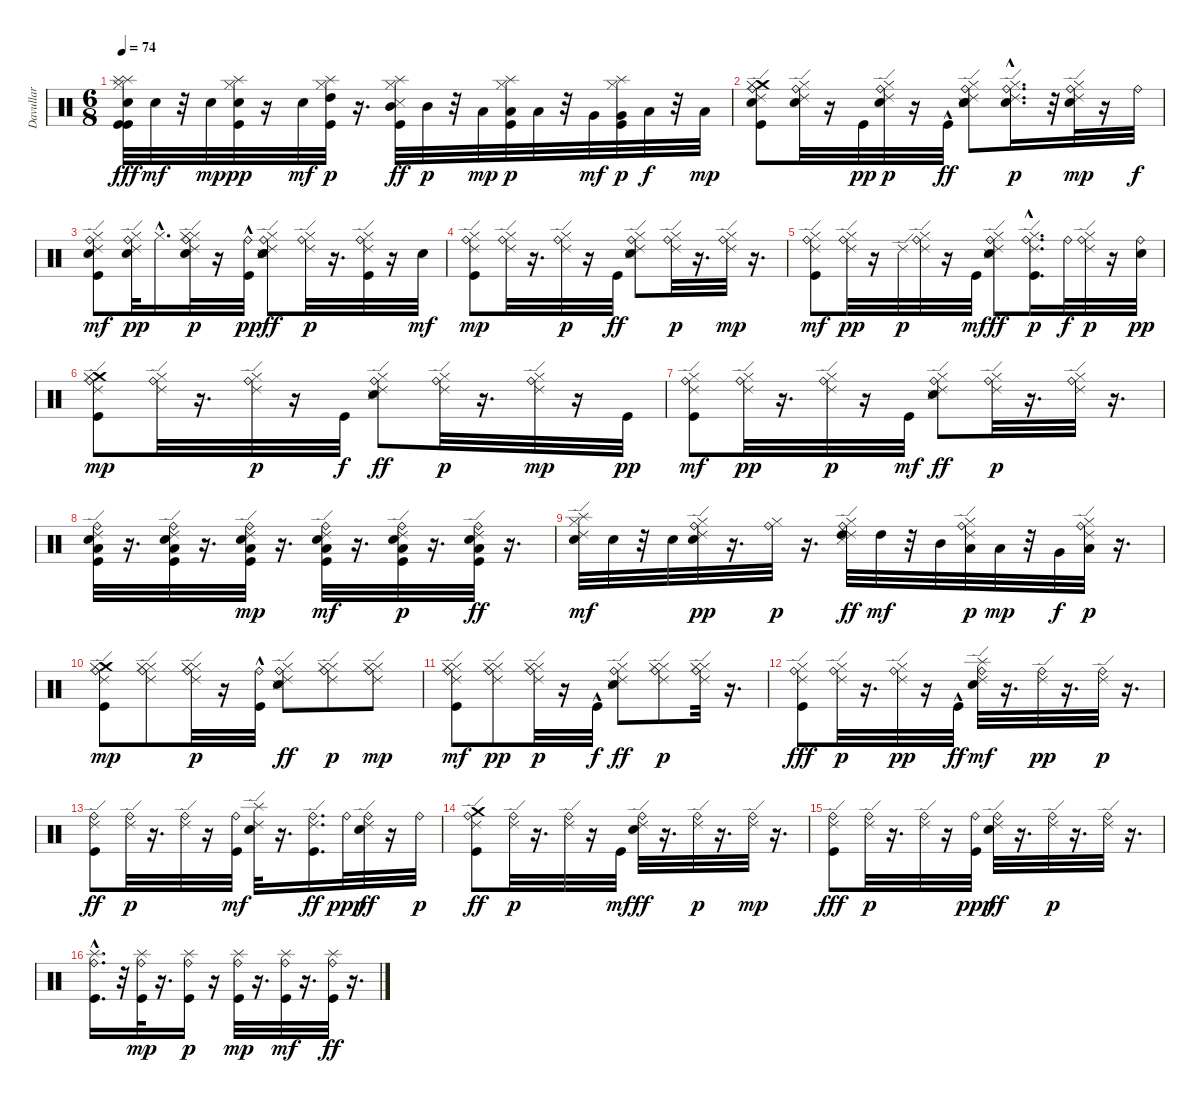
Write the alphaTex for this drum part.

\track ("Davullar" "Davullar") {instrument percussion}
\staff {score}
\articulation defaults
\ts (6 8)
\tempo 74
\clef neutral
\ks c
("Splash (hit)" "Electric Snare (hit)" "Kick (hit)" "Splash (hit)" "Hi-Hat (closed)" "Kick (hit)").32{dy fff} "Electric Snare (hit)".32{dy mf} r.32 "Electric Snare (hit)".32{dy mp} ("Electric Snare (hit)" "Kick (hit)" "Splash (hit)" "Hi-Hat (closed)").32{dy pp} r.16 "Electric Snare (hit)".32{dy mf} ("High Tom (hit)" "Kick (hit)" "Splash (hit)" "Hi-Hat (closed)").32{dy p} r.16{d} ("Mid Tom (hit)" "Kick (hit)" "Splash (hit)" "Hi-Hat (closed)" "Snare (side stick) 3").32{dy ff} "Mid Tom (hit)".32{dy p} r.32 "Low Tom (hit)".32{dy mp} ("Low Tom (hit)" "Kick (hit)" "Splash (hit)" "Hi-Hat (closed)").32{dy p} "Low Tom (hit)".32 r.32 "Very Low Tom (hit)".32{dy mf} ("Very Low Tom (hit)" "Kick (hit)" "Splash (hit)" "Hi-Hat (closed)").32{dy p} "Low Floor Tom (hit)".32{dy f} r.32 "Low Floor Tom (hit)".32{dy mp} |
("Crash medium (hit)" "Ride (edge) 2" "Snare (hit)" "Ride (bell)" "Kick (hit)" "Hi-Hat (closed)").8 ("Ride (edge) 2" "Snare (hit)" "Ride (bell)" "Hi-Hat (closed)").32 r.16 "Kick (hit)".32{dy pp} ("Ride (edge) 2" "Snare (hit)" "Ride (bell)" "Hi-Hat (closed)").32{dy p} r.16 "Kick (hit)"{hac}.32{dy ff} ("Ride (edge) 2" "Snare (hit)" "Ride (bell)" "Electric Snare (hit)" "Hi-Hat (closed)" "Snare (side stick) 3").8 ("Ride (edge) 2" "Snare (hit)" "Ride (bell)"{hac} "Hi-Hat (closed)").16{d dy p} r.32 ("Ride (edge) 2" "Snare (hit)" "Ride (bell)" "Hi-Hat (closed)").32{dy mp} r.16 "Ride (bell)".32{dy f} |
("Ride (edge) 2" "Snare (hit)" "Ride (bell)" "Kick (hit)" "Hi-Hat (closed)").8{dy mf} ("Ride (edge) 2" "Snare (hit)" "Ride (bell)" "Hi-Hat (closed)").32{dy pp} "Hi-Hat (closed)"{hac}.16{d} ("Ride (edge) 2" "Snare (hit)" "Ride (bell)" "Hi-Hat (closed)" "Hi-Hat (closed)").32{dy p} r.16 ("Ride (bell)" "Kick (hit)"{hac}).32{dy pp} ("Ride (edge) 2" "Snare (hit)" "Ride (bell)" "Electric Snare (hit)" "Hi-Hat (closed)" "Snare (side stick) 3").8{dy ff} ("Ride (edge) 2" "Ride (bell)" "Hi-Hat (closed)").32{dy p} r.16{d} ("Ride (edge) 2" "Ride (bell)" "Kick (hit)" "Hi-Hat (closed)").32 r.16 "Electric Snare (hit)".32{dy mf} |
("Ride (edge) 2" "Ride (bell)" "Kick (hit)" "Hi-Hat (closed)").8{dy mp} ("Ride (edge) 2" "Ride (bell)" "Hi-Hat (closed)").32 r.16{d} ("Ride (edge) 2" "Ride (bell)" "Hi-Hat (closed)").32{dy p} r.16 "Kick (hit)".32{dy ff} ("Ride (edge) 2" "Ride (bell)" "Electric Snare (hit)" "Hi-Hat (closed)" "Snare (side stick) 3").8 ("Ride (edge) 2" "Ride (bell)" "Hi-Hat (closed)").32{dy p} r.16{d} ("Ride (edge) 2" "Ride (bell)" "Hi-Hat (closed)").32{dy mp} r.16{d} |
("Ride (edge) 2" "Ride (bell)" "Kick (hit)" "Hi-Hat (closed)").8{dy mf} ("Ride (edge) 2" "Ride (bell)" "Hi-Hat (closed)").32{dy pp} r.16 "Ride (edge) 2".32{dy p} ("Ride (edge) 2" "Ride (bell)" "Hi-Hat (closed)").32 r.16 "Kick (hit)".32{dy mf} ("Ride (edge) 2" "Ride (bell)" "Electric Snare (hit)" "Hi-Hat (closed)" "Snare (side stick) 3").8{dy ff} ("Ride (edge) 2" "Ride (bell)" "Kick (hit)"{hac} "Hi-Hat (closed)").16{d dy p} "Ride (bell)".32{dy f} ("Ride (edge) 2" "Ride (bell)" "Hi-Hat (closed)").32{dy p} r.16 ("Ride (bell)" "Electric Snare (hit)").32{dy pp} |
("Crash medium (hit)" "Ride (edge) 2" "Ride (bell)" "Kick (hit)" "Hi-Hat (closed)").8{dy mp} ("Ride (edge) 2" "Ride (bell)" "Hi-Hat (closed)").32 r.16{d} ("Ride (edge) 2" "Ride (bell)" "Hi-Hat (closed)").32{dy p} r.16 "Kick (hit)".32{dy f} ("Ride (edge) 2" "Ride (bell)" "Electric Snare (hit)" "Hi-Hat (closed)" "Snare (side stick) 3").8{dy ff} ("Ride (edge) 2" "Ride (bell)" "Hi-Hat (closed)").32{dy p} r.16{d} ("Ride (edge) 2" "Ride (bell)" "Hi-Hat (closed)").32{dy mp} r.16 "Kick (hit)".32{dy pp} |
("Ride (edge) 2" "Ride (bell)" "Kick (hit)" "Hi-Hat (closed)").8{dy mf} ("Ride (edge) 2" "Ride (bell)" "Hi-Hat (closed)").32{dy pp} r.16{d} ("Ride (edge) 2" "Ride (bell)" "Hi-Hat (closed)").32{dy p} r.16 "Kick (hit)".32{dy mf} ("Ride (edge) 2" "Ride (bell)" "Electric Snare (hit)" "Hi-Hat (closed)" "Snare (side stick) 3").8{dy ff} ("Ride (edge) 2" "Ride (bell)" "Hi-Hat (closed)").32{dy p} r.16{d} ("Ride (edge) 2" "Ride (bell)" "Hi-Hat (closed)").32 r.16{d} |
("Ride (edge) 2" "Ride (bell)" "Kick (hit)" "Electric Snare (hit)" "Low Floor Tom (hit)").32 r.16{d} ("Ride (edge) 2" "Ride (bell)" "Electric Snare (hit)" "Kick (hit)" "Low Floor Tom (hit)").32 r.16{d} ("Ride (edge) 2" "Ride (bell)" "Kick (hit)" "Electric Snare (hit)" "Low Floor Tom (hit)").32{dy mp} r.16{d} ("Ride (edge) 2" "Ride (bell)" "Kick (hit)" "Electric Snare (hit)" "Low Floor Tom (hit)").32{dy mf} r.16{d} ("Ride (edge) 2" "Ride (bell)" "Kick (hit)" "Electric Snare (hit)" "Low Floor Tom (hit)").32{dy p} r.16{d} ("Ride (edge) 2" "Ride (bell)" "Electric Snare (hit)" "Low Floor Tom (hit)" "Kick (hit)").32{dy ff} r.16{d} |
("Ride (edge) 2" "Splash (hit)" "Electric Snare (hit)" "Hi-Hat (closed)").32{dy mf} "Electric Snare (hit)".32 r.32 "Electric Snare (hit)".32 ("Ride (edge) 2" "Ride (bell)" "Electric Snare (hit)" "Hi-Hat (closed)").32{dy pp} r.16{d} ("Ride (bell)" "Hi-Hat (closed)").32{dy p} r.16{d} ("Ride (edge) 2" "Ride (bell)" "High Tom (hit)" "Hi-Hat (closed)" "Snare (side stick) 3").32{dy ff} "High Tom (hit)".32{dy mf} r.32 "Mid Tom (hit)".32 ("Ride (edge) 2" "Ride (bell)" "Low Tom (hit)" "Hi-Hat (closed)").32{dy p} "Low Tom (hit)".32{dy mp} r.32 "Very Low Tom (hit)".32{dy f} ("Ride (edge) 2" "Ride (bell)" "Low Floor Tom (hit)" "Hi-Hat (closed)").32{dy p} r.16{d} |
("Crash medium (hit)" "Ride (edge) 2" "Ride (bell)" "Kick (hit)" "Hi-Hat (closed)").8{dy mp} ("Ride (edge) 2" "Ride (bell)" "Hi-Hat (closed)" "Hi-Hat (closed)").8 ("Ride (edge) 2" "Ride (bell)" "Hi-Hat (closed)" "Hi-Hat (closed)").32{dy p} r.16 ("Ride (bell)" "Kick (hit)"{hac}).32 ("Ride (edge) 2" "Ride (bell)" "Electric Snare (hit)" "Hi-Hat (closed)" "Snare (side stick) 3").8{dy ff} ("Ride (edge) 2" "Ride (bell)" "Hi-Hat (closed)" "Hi-Hat (closed)").8{dy p} ("Ride (edge) 2" "Ride (bell)" "Hi-Hat (closed)" "Hi-Hat (closed)").8{dy mp} |
("Ride (edge) 2" "Ride (bell)" "Kick (hit)" "Hi-Hat (closed)" "Hi-Hat (closed)").8{dy mf} ("Ride (edge) 2" "Ride (bell)" "Hi-Hat (closed)" "Hi-Hat (closed)").8{dy pp} ("Ride (edge) 2" "Ride (bell)" "Hi-Hat (closed)" "Hi-Hat (closed)").32{dy p} r.16 "Kick (hit)"{hac}.32{dy f} ("Ride (edge) 2" "Ride (bell)" "Electric Snare (hit)" "Hi-Hat (closed)" "Snare (side stick) 3").8{dy ff} ("Ride (edge) 2" "Ride (bell)" "Hi-Hat (closed)" "Hi-Hat (closed)").8{dy p} ("Ride (edge) 2" "Ride (bell)" "Hi-Hat (closed)" "Hi-Hat (closed)").32 r.16{d} |
("Ride (edge) 2" "Ride (bell)" "Hi-Hat (closed)" "Kick (hit)").8{dy fff} ("Ride (edge) 2" "Ride (bell)" "Hi-Hat (closed)").32{dy p} r.16{d} ("Ride (edge) 2" "Ride (bell)" "Hi-Hat (closed)").32{dy pp} r.16 "Kick (hit)"{hac}.32{dy ff} ("Splash (hit)" "Ride (edge) 2" "Ride (bell)" "Electric Snare (hit)").32{dy mf} r.16{d} ("Ride (edge) 2" "Ride (bell)").32{dy pp} r.16{d} ("Ride (edge) 2" "Ride (bell)").32{dy p} r.16{d} |
("Ride (edge) 2" "Ride (bell)" "Kick (hit)").8{dy ff} ("Ride (edge) 2" "Ride (bell)").32{dy p} r.16{d} ("Ride (edge) 2" "Ride (bell)").32 r.16 ("Ride (bell)" "Kick (hit)").32{dy mf} ("Ride (edge) 2" "Splash (hit)" "Electric Snare (hit)").32 r.16{d} ("Ride (edge) 2" "Ride (bell)" "Kick (hit)").16{d dy ff} "Ride (bell)".32{dy ppp} ("Ride (edge) 2" "Ride (bell)" "Electric Snare (hit)").32{dy ff} r.16 "Ride (bell)".32{dy p} |
("Crash medium (hit)" "Ride (edge) 2" "Ride (bell)" "Kick (hit)").8{dy ff} ("Ride (edge) 2" "Ride (bell)").32{dy p} r.16{d} ("Ride (edge) 2" "Ride (bell)").32 r.16 "Kick (hit)".32{dy mf} ("Ride (edge) 2" "Ride (bell)" "Electric Snare (hit)").32{dy ff} r.16{d} ("Ride (edge) 2" "Ride (bell)").32{dy p} r.16{d} ("Ride (edge) 2" "Ride (bell)").32{dy mp} r.16{d} |
("Ride (edge) 2" "Ride (bell)" "Kick (hit)").8{dy fff} ("Ride (edge) 2" "Ride (bell)").32{dy p} r.16{d} ("Ride (edge) 2" "Ride (bell)").32 r.16 ("Ride (bell)" "Kick (hit)").32{dy ppp} ("Ride (edge) 2" "Ride (bell)" "Electric Snare (hit)").32{dy ff} r.16{d} ("Ride (edge) 2" "Ride (bell)").32{dy p} r.16{d} ("Ride (edge) 2" "Ride (bell)").32 r.16{d} |
("Ride (bell)" "Kick (hit)"{hac} "Splash (hit)").16{d} r.32 ("Ride (bell)" "Splash (hit)" "Kick (hit)").32{dy mp} r.16{d} ("Ride (bell)" "Kick (hit)" "Splash (hit)").16{dy p} r.16 ("Ride (bell)" "Kick (hit)" "Splash (hit)").32{dy mp} r.16{d} ("Ride (bell)" "Kick (hit)" "Splash (hit)").32{dy mf} r.16{d} ("Ride (bell)" "Kick (hit)" "Splash (hit)").32{dy ff} r.16{d}
